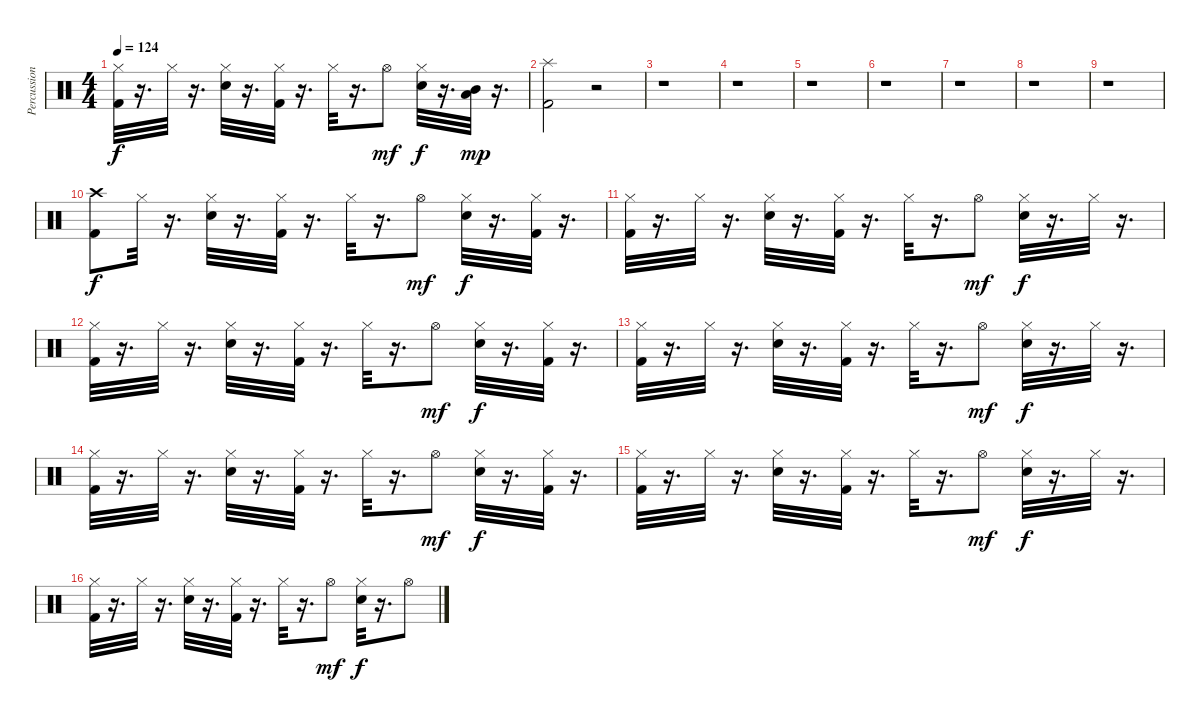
\track ("Percussions" "Percussion") {instrument percussion}
\staff {score}
\articulation defaults
\ts (4 4)
\tempo 124
\clef neutral
\ks c
("Kick (hit) 2" "Hi-Hat (closed)").32{dy f} r.16{d} "Hi-Hat (closed)".32 r.16{d} ("Snare (hit) 2" "Hi-Hat (closed)").32 r.16{d} ("Kick (hit) 2" "Hi-Hat (closed)").32 r.16{d} "Hi-Hat (closed)".32 r.16{d} "Hi-Hat (open)".8{dy mf} ("Snare (hit) 2" "Hi-Hat (closed)").32{dy f} r.16{d} ("Mid Tom (hit)" "Low Tom (hit)").32{dy mp} r.16{d} |
("Kick (hit) 2" "Splash (hit)").2 r.2 |
r.1 |
r.1 |
r.1 |
r.1 |
r.1 |
r.1 |
r.1 |
("Kick (hit) 2" "Crash high (hit)").8{dy f} "Hi-Hat (closed)".32 r.16{d} ("Snare (hit) 2" "Hi-Hat (closed)").32 r.16{d} ("Kick (hit) 2" "Hi-Hat (closed)").32 r.16{d} "Hi-Hat (closed)".32 r.16{d} "Hi-Hat (open)".8{dy mf} ("Snare (hit) 2" "Hi-Hat (closed)").32{dy f} r.16{d} ("Kick (hit) 2" "Hi-Hat (closed)").32 r.16{d} |
("Kick (hit) 2" "Hi-Hat (closed)").32 r.16{d} "Hi-Hat (closed)".32 r.16{d} ("Snare (hit) 2" "Hi-Hat (closed)").32 r.16{d} ("Kick (hit) 2" "Hi-Hat (closed)").32 r.16{d} "Hi-Hat (closed)".32 r.16{d} "Hi-Hat (open)".8{dy mf} ("Snare (hit) 2" "Hi-Hat (closed)").32{dy f} r.16{d} "Hi-Hat (closed)".32 r.16{d} |
("Kick (hit) 2" "Hi-Hat (closed)").32 r.16{d} "Hi-Hat (closed)".32 r.16{d} ("Snare (hit) 2" "Hi-Hat (closed)").32 r.16{d} ("Kick (hit) 2" "Hi-Hat (closed)").32 r.16{d} "Hi-Hat (closed)".32 r.16{d} "Hi-Hat (open)".8{dy mf} ("Snare (hit) 2" "Hi-Hat (closed)").32{dy f} r.16{d} ("Kick (hit) 2" "Hi-Hat (closed)").32 r.16{d} |
("Kick (hit) 2" "Hi-Hat (closed)").32 r.16{d} "Hi-Hat (closed)".32 r.16{d} ("Snare (hit) 2" "Hi-Hat (closed)").32 r.16{d} ("Kick (hit) 2" "Hi-Hat (closed)").32 r.16{d} "Hi-Hat (closed)".32 r.16{d} "Hi-Hat (open)".8{dy mf} ("Snare (hit) 2" "Hi-Hat (closed)").32{dy f} r.16{d} "Hi-Hat (closed)".32 r.16{d} |
("Kick (hit) 2" "Hi-Hat (closed)").32 r.16{d} "Hi-Hat (closed)".32 r.16{d} ("Snare (hit) 2" "Hi-Hat (closed)").32 r.16{d} ("Kick (hit) 2" "Hi-Hat (closed)").32 r.16{d} "Hi-Hat (closed)".32 r.16{d} "Hi-Hat (open)".8{dy mf} ("Snare (hit) 2" "Hi-Hat (closed)").32{dy f} r.16{d} ("Kick (hit) 2" "Hi-Hat (closed)").32 r.16{d} |
("Kick (hit) 2" "Hi-Hat (closed)").32 r.16{d} "Hi-Hat (closed)".32 r.16{d} ("Snare (hit) 2" "Hi-Hat (closed)").32 r.16{d} ("Kick (hit) 2" "Hi-Hat (closed)").32 r.16{d} "Hi-Hat (closed)".32 r.16{d} "Hi-Hat (open)".8{dy mf} ("Snare (hit) 2" "Hi-Hat (closed)").32{dy f} r.16{d} "Hi-Hat (closed)".32 r.16{d} |
("Kick (hit) 2" "Hi-Hat (closed)").32 r.16{d} "Hi-Hat (closed)".32 r.16{d} ("Snare (hit) 2" "Hi-Hat (closed)").32 r.16{d} ("Kick (hit) 2" "Hi-Hat (closed)").32 r.16{d} "Hi-Hat (closed)".32 r.16{d} "Hi-Hat (open)".8{dy mf} ("Snare (hit) 2" "Hi-Hat (closed)").32{dy f} r.16{d} "Hi-Hat (open)".8
